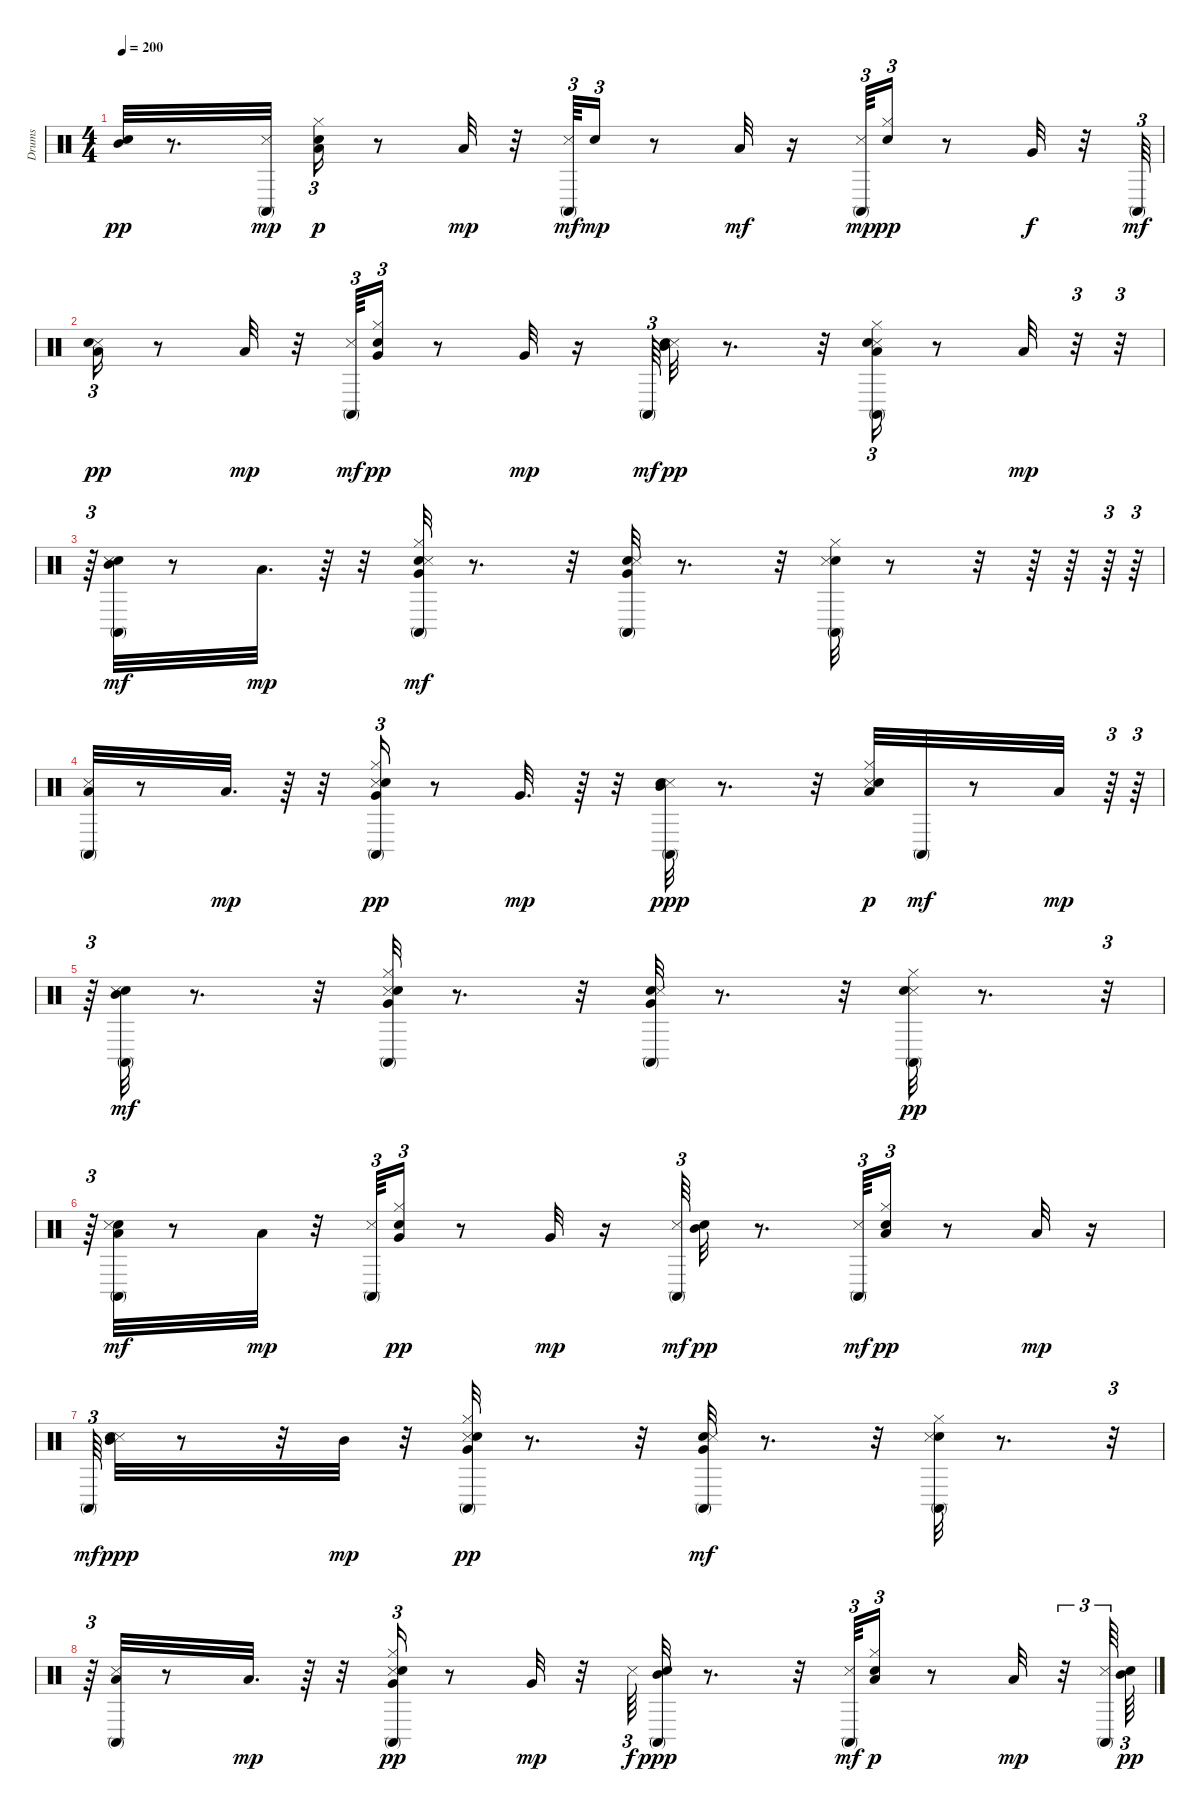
\track ("Drums" "Drums") {instrument percussion}
\staff {score}
\articulation defaults
\ts (4 4)
\tempo 200
\clef neutral
\ks c
("Mid Tom (hit)" "Hand Clap (hit)").32{dy pp} r.8{d} ("Conga high (mute)" "Snare (side stick) 3").32{dy mp} ("Hi-Hat (closed)" "Low Tom (hit)" "Hand Clap (hit)").16{tu (3 2) dy p} r.8 "Low Tom (hit)".32{dy mp} r.32 ("Snare (side stick) 3" "Conga high (mute)").64{tu (3 2) dy mf} "Hand Clap (hit)".16{tu (3 2) dy mp} r.8 "Low Tom (hit)".32{dy mf} r.16 ("Conga high (mute)" "Snare (side stick) 3").64{tu (3 2) dy mp} ("Hi-Hat (closed)" "Hand Clap (hit)").16{tu (3 2) dy pp} r.8 "Very Low Tom (hit)".32{dy f} r.32 "Conga high (mute)".64{tu (3 2) dy mf} |
("Low Tom (hit)" "Snare (side stick) 3" "Hand Clap (hit)").16{tu (3 2) dy pp} r.8 "Low Tom (hit)".32{dy mp} r.32 ("Snare (side stick) 3" "Conga high (mute)").64{tu (3 2) dy mf} ("Hi-Hat (closed)" "Very Low Tom (hit)" "Hand Clap (hit)").16{tu (3 2) dy pp} r.8 "Very Low Tom (hit)".32{dy mp} r.16 "Conga high (mute)".64{tu (3 2) dy mf} ("Mid Tom (hit)" "Snare (side stick) 3" "Hand Clap (hit)").32{dy pp} r.8{d} r.32 ("Hi-Hat (closed)" "Low Tom (hit)" "Conga high (mute)" "Snare (side stick) 3" "Hand Clap (hit)").16{tu (3 2)} r.8 "Low Tom (hit)".32{dy mp} r.32{tu (3 2)} r.32{tu (3 2)} |
r.64{tu (3 2)} ("Mid Tom (hit)" "Hand Clap (hit)" "Snare (side stick) 3" "Conga high (mute)").32{dy mf} r.8 "Low Tom (hit)".32{d dy mp} r.64 r.32 ("Hi-Hat (closed)" "Very Low Tom (hit)" "Conga high (mute)" "Hand Clap (hit)" "Snare (side stick) 3").32{dy mf} r.8{d} r.32 ("Very Low Tom (hit)" "Hand Clap (hit)" "Snare (side stick) 3" "Conga high (mute)").32 r.8{d} r.32 ("Hi-Hat (closed)" "Conga high (mute)" "Hand Clap (hit)" "Snare (side stick) 3").32 r.8 r.32 r.64 r.64 r.64{tu (3 2)} r.64{tu (3 2)} |
("Low Tom (hit)" "Conga high (mute)" "Snare (side stick) 3").32 r.8 "Low Tom (hit)".32{d dy mp} r.64 r.32 ("Hi-Hat (closed)" "Very Low Tom (hit)" "Snare (side stick) 3" "Conga high (mute)" "Hand Clap (hit)").16{tu (3 2) dy pp} r.8 "Very Low Tom (hit)".32{d dy mp} r.64 r.32 ("Mid Tom (hit)" "Conga high (mute)" "Snare (side stick) 3" "Hand Clap (hit)").32{dy ppp} r.8{d} r.32 ("Hi-Hat (closed)" "Low Tom (hit)" "Snare (side stick) 3" "Hand Clap (hit)").32{dy p} "Conga high (mute)".32{dy mf} r.8 "Low Tom (hit)".32{dy mp} r.64{tu (3 2)} r.64{tu (3 2)} |
r.64{tu (3 2)} ("Mid Tom (hit)" "Hand Clap (hit)" "Snare (side stick) 3" "Conga high (mute)").32{dy mf} r.8{d} r.32 ("Hi-Hat (closed)" "Very Low Tom (hit)" "Snare (side stick) 3" "Hand Clap (hit)" "Conga high (mute)").32 r.8{d} r.32 ("Very Low Tom (hit)" "Hand Clap (hit)" "Snare (side stick) 3" "Conga high (mute)").32 r.8{d} r.32 ("Hi-Hat (closed)" "Snare (side stick) 3" "Conga high (mute)" "Hand Clap (hit)").32{dy pp} r.8{d} r.32{tu (3 2)} |
r.64{tu (3 2)} ("Low Tom (hit)" "Hand Clap (hit)" "Conga high (mute)" "Snare (side stick) 3").32{dy mf} r.8 "Low Tom (hit)".32{dy mp} r.32 ("Snare (side stick) 3" "Conga high (mute)").64{tu (3 2)} ("Hi-Hat (closed)" "Very Low Tom (hit)" "Hand Clap (hit)").16{tu (3 2) dy pp} r.8 "Very Low Tom (hit)".32{dy mp} r.16 ("Snare (side stick) 3" "Conga high (mute)").64{tu (3 2) dy mf} ("Mid Tom (hit)" "Hand Clap (hit)").32{dy pp} r.8{d} ("Snare (side stick) 3" "Conga high (mute)").64{tu (3 2) dy mf} ("Hi-Hat (closed)" "Low Tom (hit)" "Hand Clap (hit)").16{tu (3 2) dy pp} r.8 "Low Tom (hit)".32{dy mp} r.16 |
"Conga high (mute)".64{tu (3 2) dy mf} ("Mid Tom (hit)" "Snare (side stick) 3" "Hand Clap (hit)").32{dy ppp} r.8 r.32 "Mid Tom (hit)".32{dy mp} r.32 ("Hi-Hat (closed)" "Very Low Tom (hit)" "Snare (side stick) 3" "Conga high (mute)" "Hand Clap (hit)").32{dy pp} r.8{d} r.32 ("Very Low Tom (hit)" "Hand Clap (hit)" "Conga high (mute)" "Snare (side stick) 3").32{dy mf} r.8{d} r.32 ("Hi-Hat (closed)" "Hand Clap (hit)" "Conga high (mute)" "Snare (side stick) 3").32 r.8{d} r.32{tu (3 2)} |
r.64{tu (3 2)} ("Low Tom (hit)" "Snare (side stick) 3" "Conga high (mute)").32 r.8 "Low Tom (hit)".32{d dy mp} r.64 r.32 ("Hi-Hat (closed)" "Very Low Tom (hit)" "Snare (side stick) 3" "Conga high (mute)" "Hand Clap (hit)").16{tu (3 2) dy pp} r.8 "Very Low Tom (hit)".32{dy mp} r.32 "Snare (side stick) 3".64{tu (3 2) dy f} ("Mid Tom (hit)" "Conga high (mute)" "Hand Clap (hit)").32{dy ppp} r.8{d} r.32 ("Snare (side stick) 3" "Conga high (mute)").64{tu (3 2) dy mf} ("Hi-Hat (closed)" "Low Tom (hit)" "Hand Clap (hit)").16{tu (3 2) dy p} r.8 "Low Tom (hit)".32{dy mp} r.32{tu (3 2)} ("Snare (side stick) 3" "Conga high (mute)").64{tu (3 2)} ("Mid Tom (hit)" "Hand Clap (hit)").64{tu (3 2) dy pp}
